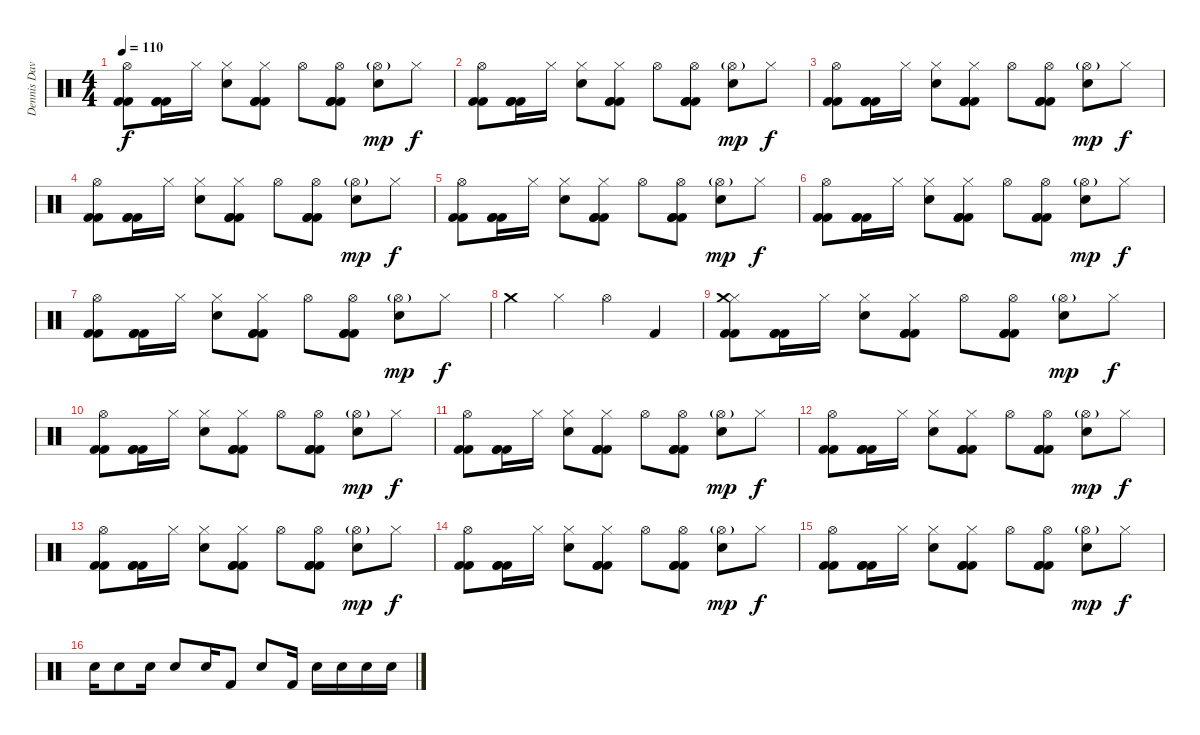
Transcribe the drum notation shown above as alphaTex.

\track ("Dennis Davis" "Dennis Dav") {instrument percussion}
\staff {score}
\articulation defaults
\ts (4 4)
\tempo 110
\clef neutral
\ks c
("Hi-Hat (open)" "Kick (hit) 2" "Kick (hit) 2").8{dy f} ("Kick (hit) 2" "Kick (hit) 2" "Kick (hit) 2").16 "Hi-Hat (closed)".16 ("Hi-Hat (closed)" "Snare (hit) 2").8 ("Hi-Hat (closed)" "Kick (hit) 2" "Kick (hit) 2" "Kick (hit) 2").8 "Hi-Hat (open)".8 ("Hi-Hat (open)" "Kick (hit) 2" "Kick (hit) 2" "Kick (hit) 2").8 ("Hi-Hat (open)"{g} "Snare (hit) 2").8{dy mp} "Hi-Hat (closed)".8{dy f} |
("Hi-Hat (open)" "Kick (hit) 2" "Kick (hit) 2").8 ("Kick (hit) 2" "Kick (hit) 2" "Kick (hit) 2").16 "Hi-Hat (closed)".16 ("Hi-Hat (closed)" "Snare (hit) 2").8 ("Hi-Hat (closed)" "Kick (hit) 2" "Kick (hit) 2" "Kick (hit) 2").8 "Hi-Hat (open)".8 ("Hi-Hat (open)" "Kick (hit) 2" "Kick (hit) 2" "Kick (hit) 2").8 ("Hi-Hat (open)"{g} "Snare (hit) 2").8{dy mp} "Hi-Hat (closed)".8{dy f} |
("Hi-Hat (open)" "Kick (hit) 2" "Kick (hit) 2").8 ("Kick (hit) 2" "Kick (hit) 2" "Kick (hit) 2").16 "Hi-Hat (closed)".16 ("Hi-Hat (closed)" "Snare (hit) 2").8 ("Hi-Hat (closed)" "Kick (hit) 2" "Kick (hit) 2" "Kick (hit) 2").8 "Hi-Hat (open)".8 ("Hi-Hat (open)" "Kick (hit) 2" "Kick (hit) 2" "Kick (hit) 2").8 ("Hi-Hat (open)"{g} "Snare (hit) 2").8{dy mp} "Hi-Hat (closed)".8{dy f} |
("Hi-Hat (open)" "Kick (hit) 2" "Kick (hit) 2").8 ("Kick (hit) 2" "Kick (hit) 2" "Kick (hit) 2").16 "Hi-Hat (closed)".16 ("Hi-Hat (closed)" "Snare (hit) 2").8 ("Hi-Hat (closed)" "Kick (hit) 2" "Kick (hit) 2" "Kick (hit) 2").8 "Hi-Hat (open)".8 ("Hi-Hat (open)" "Kick (hit) 2" "Kick (hit) 2" "Kick (hit) 2").8 ("Hi-Hat (open)"{g} "Snare (hit) 2").8{dy mp} "Hi-Hat (closed)".8{dy f} |
("Hi-Hat (open)" "Kick (hit) 2" "Kick (hit) 2").8 ("Kick (hit) 2" "Kick (hit) 2" "Kick (hit) 2").16 "Hi-Hat (closed)".16 ("Hi-Hat (closed)" "Snare (hit) 2").8 ("Hi-Hat (closed)" "Kick (hit) 2" "Kick (hit) 2" "Kick (hit) 2").8 "Hi-Hat (open)".8 ("Hi-Hat (open)" "Kick (hit) 2" "Kick (hit) 2" "Kick (hit) 2").8 ("Hi-Hat (open)"{g} "Snare (hit) 2").8{dy mp} "Hi-Hat (closed)".8{dy f} |
("Hi-Hat (open)" "Kick (hit) 2" "Kick (hit) 2").8 ("Kick (hit) 2" "Kick (hit) 2" "Kick (hit) 2").16 "Hi-Hat (closed)".16 ("Hi-Hat (closed)" "Snare (hit) 2").8 ("Hi-Hat (closed)" "Kick (hit) 2" "Kick (hit) 2" "Kick (hit) 2").8 "Hi-Hat (open)".8 ("Hi-Hat (open)" "Kick (hit) 2" "Kick (hit) 2" "Kick (hit) 2").8 ("Hi-Hat (open)"{g} "Snare (hit) 2").8{dy mp} "Hi-Hat (closed)".8{dy f} |
("Hi-Hat (open)" "Kick (hit) 2" "Kick (hit) 2").8 ("Kick (hit) 2" "Kick (hit) 2" "Kick (hit) 2").16 "Hi-Hat (closed)".16 ("Hi-Hat (closed)" "Snare (hit) 2").8 ("Hi-Hat (closed)" "Kick (hit) 2" "Kick (hit) 2" "Kick (hit) 2").8 "Hi-Hat (open)".8 ("Hi-Hat (open)" "Kick (hit) 2" "Kick (hit) 2" "Kick (hit) 2").8 ("Hi-Hat (open)"{g} "Snare (hit) 2").8{dy mp} "Hi-Hat (closed)".8{dy f} |
"Crash medium (hit)".4 "Hi-Hat (closed)".4 "Hi-Hat (open)".4 "Kick (hit) 2".4 |
("Hi-Hat (closed)" "Crash medium (hit)" "Kick (hit) 2" "Kick (hit) 2").8 ("Kick (hit) 2" "Kick (hit) 2" "Kick (hit) 2").16 "Hi-Hat (closed)".16 ("Hi-Hat (closed)" "Snare (hit) 2").8 ("Hi-Hat (closed)" "Kick (hit) 2" "Kick (hit) 2" "Kick (hit) 2").8 "Hi-Hat (open)".8 ("Hi-Hat (open)" "Kick (hit) 2" "Kick (hit) 2" "Kick (hit) 2").8 ("Hi-Hat (open)"{g} "Snare (hit) 2").8{dy mp} "Hi-Hat (closed)".8{dy f} |
("Hi-Hat (open)" "Kick (hit) 2" "Kick (hit) 2").8 ("Kick (hit) 2" "Kick (hit) 2" "Kick (hit) 2").16 "Hi-Hat (closed)".16 ("Hi-Hat (closed)" "Snare (hit) 2").8 ("Hi-Hat (closed)" "Kick (hit) 2" "Kick (hit) 2" "Kick (hit) 2").8 "Hi-Hat (open)".8 ("Hi-Hat (open)" "Kick (hit) 2" "Kick (hit) 2" "Kick (hit) 2").8 ("Hi-Hat (open)"{g} "Snare (hit) 2").8{dy mp} "Hi-Hat (closed)".8{dy f} |
("Hi-Hat (open)" "Kick (hit) 2" "Kick (hit) 2").8 ("Kick (hit) 2" "Kick (hit) 2" "Kick (hit) 2").16 "Hi-Hat (closed)".16 ("Hi-Hat (closed)" "Snare (hit) 2").8 ("Hi-Hat (closed)" "Kick (hit) 2" "Kick (hit) 2" "Kick (hit) 2").8 "Hi-Hat (open)".8 ("Hi-Hat (open)" "Kick (hit) 2" "Kick (hit) 2" "Kick (hit) 2").8 ("Hi-Hat (open)"{g} "Snare (hit) 2").8{dy mp} "Hi-Hat (closed)".8{dy f} |
("Hi-Hat (open)" "Kick (hit) 2" "Kick (hit) 2").8 ("Kick (hit) 2" "Kick (hit) 2" "Kick (hit) 2").16 "Hi-Hat (closed)".16 ("Hi-Hat (closed)" "Snare (hit) 2").8 ("Hi-Hat (closed)" "Kick (hit) 2" "Kick (hit) 2" "Kick (hit) 2").8 "Hi-Hat (open)".8 ("Hi-Hat (open)" "Kick (hit) 2" "Kick (hit) 2" "Kick (hit) 2").8 ("Hi-Hat (open)"{g} "Snare (hit) 2").8{dy mp} "Hi-Hat (closed)".8{dy f} |
("Hi-Hat (open)" "Kick (hit) 2" "Kick (hit) 2").8 ("Kick (hit) 2" "Kick (hit) 2" "Kick (hit) 2").16 "Hi-Hat (closed)".16 ("Hi-Hat (closed)" "Snare (hit) 2").8 ("Hi-Hat (closed)" "Kick (hit) 2" "Kick (hit) 2" "Kick (hit) 2").8 "Hi-Hat (open)".8 ("Hi-Hat (open)" "Kick (hit) 2" "Kick (hit) 2" "Kick (hit) 2").8 ("Hi-Hat (open)"{g} "Snare (hit) 2").8{dy mp} "Hi-Hat (closed)".8{dy f} |
("Hi-Hat (open)" "Kick (hit) 2" "Kick (hit) 2").8 ("Kick (hit) 2" "Kick (hit) 2" "Kick (hit) 2").16 "Hi-Hat (closed)".16 ("Hi-Hat (closed)" "Snare (hit) 2").8 ("Hi-Hat (closed)" "Kick (hit) 2" "Kick (hit) 2" "Kick (hit) 2").8 "Hi-Hat (open)".8 ("Hi-Hat (open)" "Kick (hit) 2" "Kick (hit) 2" "Kick (hit) 2").8 ("Hi-Hat (open)"{g} "Snare (hit) 2").8{dy mp} "Hi-Hat (closed)".8{dy f} |
("Hi-Hat (open)" "Kick (hit) 2" "Kick (hit) 2").8 ("Kick (hit) 2" "Kick (hit) 2" "Kick (hit) 2").16 "Hi-Hat (closed)".16 ("Hi-Hat (closed)" "Snare (hit) 2").8 ("Hi-Hat (closed)" "Kick (hit) 2" "Kick (hit) 2" "Kick (hit) 2").8 "Hi-Hat (open)".8 ("Hi-Hat (open)" "Kick (hit) 2" "Kick (hit) 2" "Kick (hit) 2").8 ("Hi-Hat (open)"{g} "Snare (hit) 2").8{dy mp} "Hi-Hat (closed)".8{dy f} |
"Snare (hit) 2".16 "Snare (hit) 2".8 "Snare (hit) 2".16 "Snare (hit) 2".8 "Snare (hit) 2".16 "Kick (hit) 2".8 "Snare (hit) 2".8 "Kick (hit) 2".16 "Snare (hit) 2".16 "Snare (hit) 2".16 "Snare (hit) 2".16 "Snare (hit) 2".16
